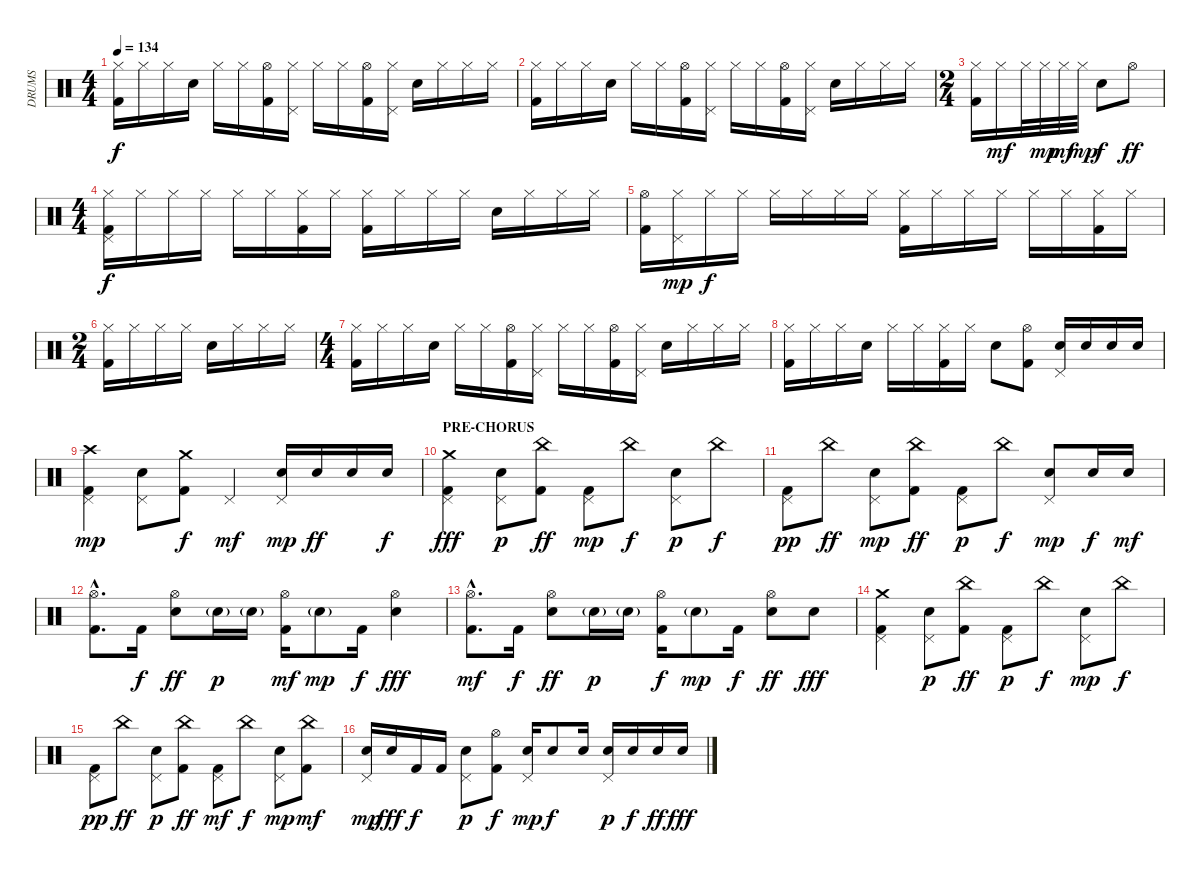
\track ("DRUMS" "DRUMS") {instrument percussion}
\staff {score}
\articulation defaults
\ts (4 4)
\tempo 134
\clef neutral
\ks c
("Hi-Hat (closed)" "Kick (hit) 2").16{dy f} "Hi-Hat (closed)".16 "Hi-Hat (closed)".16 "Electric Snare (hit)".16 "Hi-Hat (closed)".16 "Hi-Hat (closed)".16 ("Hi-Hat (open)" "Kick (hit) 2").16 ("Hi-Hat (closed)" "Pedal Hi-Hat (hit)").16 "Hi-Hat (closed)".16 "Hi-Hat (closed)".16 ("Hi-Hat (open)" "Kick (hit) 2").16 ("Hi-Hat (closed)" "Pedal Hi-Hat (hit)").16 "Electric Snare (hit)".16 "Hi-Hat (closed)".16 "Hi-Hat (closed)".16 "Hi-Hat (closed)".16 |
("Hi-Hat (closed)" "Kick (hit) 2").16 "Hi-Hat (closed)".16 "Hi-Hat (closed)".16 "Electric Snare (hit)".16 "Hi-Hat (closed)".16 "Hi-Hat (closed)".16 ("Hi-Hat (open)" "Kick (hit) 2").16 ("Hi-Hat (closed)" "Pedal Hi-Hat (hit)").16 "Hi-Hat (closed)".16 "Hi-Hat (closed)".16 ("Hi-Hat (open)" "Kick (hit) 2").16 ("Hi-Hat (closed)" "Pedal Hi-Hat (hit)").16 "Electric Snare (hit)".16 "Hi-Hat (closed)".16 "Hi-Hat (closed)".16 "Hi-Hat (closed)".16 |
\ts (2 4)
("Hi-Hat (closed)" "Kick (hit) 2").16 "Hi-Hat (closed)".16{dy mf} "Hi-Hat (closed)".32 "Hi-Hat (closed)".32{dy mp} "Hi-Hat (closed)".32{dy mf} "Hi-Hat (closed)".32{dy mp} "Electric Snare (hit)".8{dy f} "Hi-Hat (open)".8{dy ff} |
\ts (4 4)
("Hi-Hat (closed)" "Pedal Hi-Hat (hit)" "Kick (hit) 2").16{dy f} "Hi-Hat (closed)".16 "Hi-Hat (closed)".16 "Hi-Hat (closed)".16 "Hi-Hat (closed)".16 "Hi-Hat (closed)".16 ("Hi-Hat (closed)" "Kick (hit) 2").16 "Hi-Hat (closed)".16 ("Hi-Hat (closed)" "Kick (hit) 2").16 "Hi-Hat (closed)".16 "Hi-Hat (closed)".16 "Hi-Hat (closed)".16 "Electric Snare (hit)".16 "Hi-Hat (closed)".16 "Hi-Hat (closed)".16 "Hi-Hat (closed)".16 |
("Hi-Hat (open)" "Kick (hit) 2").16 ("Hi-Hat (closed)" "Pedal Hi-Hat (hit)").16{dy mp} "Hi-Hat (closed)".16{dy f} "Hi-Hat (closed)".16 "Hi-Hat (closed)".16 "Hi-Hat (closed)".16 "Hi-Hat (closed)".16 "Hi-Hat (closed)".16 ("Hi-Hat (closed)" "Kick (hit) 2").16 "Hi-Hat (closed)".16 "Hi-Hat (closed)".16 "Hi-Hat (closed)".16 "Hi-Hat (closed)".16 "Hi-Hat (closed)".16 ("Hi-Hat (closed)" "Kick (hit) 2").16 "Hi-Hat (closed)".16 |
\ts (2 4)
("Hi-Hat (closed)" "Kick (hit) 2").16 "Hi-Hat (closed)".16 "Hi-Hat (closed)".16 "Hi-Hat (closed)".16 "Electric Snare (hit)".16 "Hi-Hat (closed)".16 "Hi-Hat (closed)".16 "Hi-Hat (closed)".16 |
\ts (4 4)
("Hi-Hat (closed)" "Kick (hit) 2").16 "Hi-Hat (closed)".16 "Hi-Hat (closed)".16 "Electric Snare (hit)".16 "Hi-Hat (closed)".16 "Hi-Hat (closed)".16 ("Hi-Hat (open)" "Kick (hit) 2").16 ("Hi-Hat (closed)" "Pedal Hi-Hat (hit)").16 "Hi-Hat (closed)".16 "Hi-Hat (closed)".16 ("Hi-Hat (open)" "Kick (hit) 2").16 ("Hi-Hat (closed)" "Pedal Hi-Hat (hit)").16 "Electric Snare (hit)".16 "Hi-Hat (closed)".16 "Hi-Hat (closed)".16 "Hi-Hat (closed)".16 |
("Hi-Hat (closed)" "Kick (hit) 2").16 "Hi-Hat (closed)".16 "Hi-Hat (closed)".16 "Electric Snare (hit)".16 "Hi-Hat (closed)".16 "Hi-Hat (closed)".16 ("Hi-Hat (closed)" "Kick (hit) 2").16 "Hi-Hat (closed)".16 "Electric Snare (hit)".8 ("Hi-Hat (open)" "Kick (hit) 2").8 ("Electric Snare (hit)" "Pedal Hi-Hat (hit)").16 "Electric Snare (hit)".16 "Electric Snare (hit)".16 "Electric Snare (hit)".16 |
("Crash high (hit)" "Pedal Hi-Hat (hit)" "Kick (hit) 2").4{dy mp} ("Electric Snare (hit)" "Pedal Hi-Hat (hit)").8 ("Crash medium (hit)" "Kick (hit) 2").8{dy f} "Pedal Hi-Hat (hit)".4{dy mf} ("Electric Snare (hit)" "Pedal Hi-Hat (hit)").16{dy mp} "Electric Snare (hit)".16{dy ff} "Electric Snare (hit)".16 "Electric Snare (hit)".16{dy f} |
\section ("" "PRE-CHORUS")
("Crash medium (hit)" "Pedal Hi-Hat (hit)" "Kick (hit) 2").4{dy fff} ("Electric Snare (hit)" "Pedal Hi-Hat (hit)").8{dy p} ("China (hit)" "Kick (hit) 2").8{dy ff} ("Pedal Hi-Hat (hit)" "Kick (hit) 2").8{dy mp} "China (hit)".8{dy f} ("Electric Snare (hit)" "Pedal Hi-Hat (hit)").8{dy p} "China (hit)".8{dy f} |
("Pedal Hi-Hat (hit)" "Kick (hit) 2").8{dy pp} "China (hit)".8{dy ff} ("Electric Snare (hit)" "Pedal Hi-Hat (hit)").8{dy mp} ("China (hit)" "Kick (hit) 2").8{dy ff} ("Pedal Hi-Hat (hit)" "Kick (hit) 2").8{dy p} "China (hit)".8{dy f} ("Electric Snare (hit)" "Pedal Hi-Hat (hit)").8{dy mp} "Electric Snare (hit)".16{dy f} "Electric Snare (hit)".16{dy mf} |
("Hi-Hat (open)"{hac} "Kick (hit) 2"{hac}).8{d} "Kick (hit) 2".16{dy f} ("Hi-Hat (open)" "Electric Snare (hit)").8{dy ff} "Electric Snare (hit)"{g}.16{dy p} "Electric Snare (hit)"{g}.16 ("Hi-Hat (open)" "Kick (hit) 2").16{dy mf} "Electric Snare (hit)"{g}.8{dy mp} "Kick (hit) 2".16{dy f} ("Hi-Hat (open)" "Electric Snare (hit)").4{dy fff} |
("Hi-Hat (open)"{hac} "Kick (hit) 2"{hac}).8{d dy mf} "Kick (hit) 2".16{dy f} ("Hi-Hat (open)" "Electric Snare (hit)").8{dy ff} "Electric Snare (hit)"{g}.16{dy p} "Electric Snare (hit)"{g}.16 ("Hi-Hat (open)" "Kick (hit) 2").16{dy f} "Electric Snare (hit)"{g}.8{dy mp} "Kick (hit) 2".16{dy f} ("Hi-Hat (open)" "Electric Snare (hit)").8{dy ff} "Electric Snare (hit)".8{dy fff} |
("Crash medium (hit)" "Pedal Hi-Hat (hit)" "Kick (hit) 2").4 ("Electric Snare (hit)" "Pedal Hi-Hat (hit)").8{dy p} ("China (hit)" "Kick (hit) 2").8{dy ff} ("Pedal Hi-Hat (hit)" "Kick (hit) 2").8{dy p} "China (hit)".8{dy f} ("Electric Snare (hit)" "Pedal Hi-Hat (hit)").8{dy mp} "China (hit)".8{dy f} |
("Pedal Hi-Hat (hit)" "Kick (hit) 2").8{dy pp} "China (hit)".8{dy ff} ("Electric Snare (hit)" "Pedal Hi-Hat (hit)").8{dy p} ("China (hit)" "Kick (hit) 2").8{dy ff} ("Pedal Hi-Hat (hit)" "Kick (hit) 2").8{dy mf} "China (hit)".8{dy f} ("Electric Snare (hit)" "Pedal Hi-Hat (hit)").8{dy mp} ("China (hit)" "Kick (hit) 2").8{dy mf} |
("Electric Snare (hit)" "Pedal Hi-Hat (hit)").16{dy mp} "Electric Snare (hit)".16{dy fff} "Kick (hit) 2".16{dy f} "Kick (hit) 2".16 ("Electric Snare (hit)" "Pedal Hi-Hat (hit)").8{dy p} ("Hi-Hat (open)" "Kick (hit) 2").8{dy f} ("Electric Snare (hit)" "Pedal Hi-Hat (hit)").16{dy mp} "Electric Snare (hit)".8{dy f} "Electric Snare (hit)".16 ("Electric Snare (hit)" "Pedal Hi-Hat (hit)").16{dy p} "Electric Snare (hit)".16{dy f} "Electric Snare (hit)".16{dy ff} "Electric Snare (hit)".16{dy fff}
